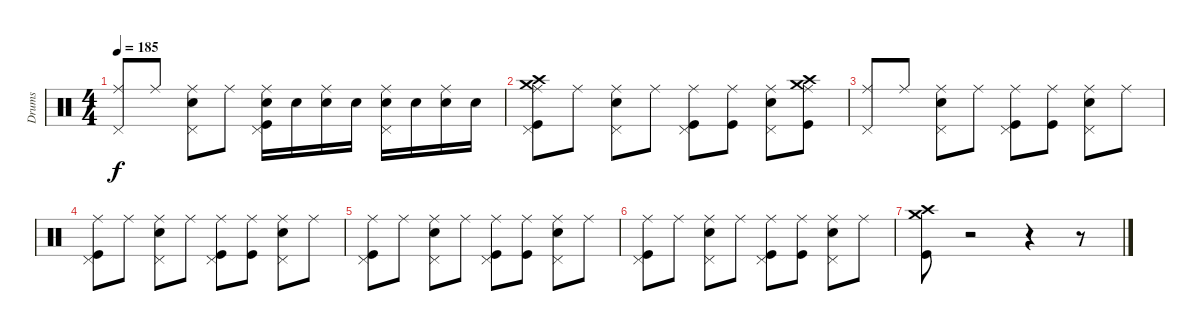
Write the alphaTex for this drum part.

\track ("Drums" "Drums") {instrument percussion}
\staff {score}
\articulation defaults
\ts (4 4)
\tempo 185
\clef neutral
\ks c
("Ride (middle)" "Pedal Hi-Hat (hit)").8{dy f} "Ride (middle)".8 ("Ride (middle)" "Pedal Hi-Hat (hit)" "Electric Snare (hit)").8 "Ride (middle)".8 ("Electric Snare (hit)" "Kick (hit)" "Ride (middle)" "Pedal Hi-Hat (hit)").16 "Electric Snare (hit)".16 ("Electric Snare (hit)" "Ride (middle)").16 "Electric Snare (hit)".16 ("Electric Snare (hit)" "Ride (middle)" "Pedal Hi-Hat (hit)").16 "Electric Snare (hit)".16 ("Electric Snare (hit)" "Ride (middle)").16 "Electric Snare (hit)".16 |
("Kick (hit)" "Pedal Hi-Hat (hit)" "Ride (middle)" "Crash high (hit)" "Crash medium (hit)").8 "Ride (middle)".8 ("Electric Snare (hit)" "Pedal Hi-Hat (hit)" "Ride (middle)").8 "Ride (middle)".8 ("Kick (hit)" "Pedal Hi-Hat (hit)" "Ride (middle)").8 ("Kick (hit)" "Ride (middle)").8 ("Electric Snare (hit)" "Pedal Hi-Hat (hit)" "Ride (middle)").8 ("Crash medium (hit)" "Crash high (hit)" "Kick (hit)" "Ride (middle)").8 |
("Ride (middle)" "Pedal Hi-Hat (hit)").8 "Ride (middle)".8 ("Ride (middle)" "Pedal Hi-Hat (hit)" "Electric Snare (hit)").8 "Ride (middle)".8 ("Ride (middle)" "Kick (hit)" "Pedal Hi-Hat (hit)").8 ("Ride (middle)" "Kick (hit)").8 ("Electric Snare (hit)" "Pedal Hi-Hat (hit)" "Ride (middle)").8 "Ride (middle)".8 |
("Ride (middle)" "Pedal Hi-Hat (hit)" "Kick (hit)").8 "Ride (middle)".8 ("Ride (middle)" "Pedal Hi-Hat (hit)" "Electric Snare (hit)").8 "Ride (middle)".8 ("Ride (middle)" "Pedal Hi-Hat (hit)" "Kick (hit)").8 ("Kick (hit)" "Ride (middle)").8 ("Ride (middle)" "Pedal Hi-Hat (hit)" "Electric Snare (hit)").8 "Ride (middle)".8 |
("Ride (middle)" "Pedal Hi-Hat (hit)" "Kick (hit)").8 "Ride (middle)".8 ("Ride (middle)" "Pedal Hi-Hat (hit)" "Electric Snare (hit)").8 "Ride (middle)".8 ("Kick (hit)" "Ride (middle)" "Pedal Hi-Hat (hit)").8 ("Kick (hit)" "Ride (middle)").8 ("Ride (middle)" "Pedal Hi-Hat (hit)" "Electric Snare (hit)").8 "Ride (middle)".8 |
("Kick (hit)" "Pedal Hi-Hat (hit)" "Ride (middle)").8 "Ride (middle)".8 ("Electric Snare (hit)" "Pedal Hi-Hat (hit)" "Ride (middle)").8 "Ride (middle)".8 ("Kick (hit)" "Pedal Hi-Hat (hit)" "Ride (middle)").8 ("Kick (hit)" "Ride (middle)").8 ("Electric Snare (hit)" "Pedal Hi-Hat (hit)" "Ride (middle)").8 "Ride (middle)".8 |
("Crash high (hit)" "Kick (hit)" "Crash medium (hit)").8 r.2 r.4 r.8
